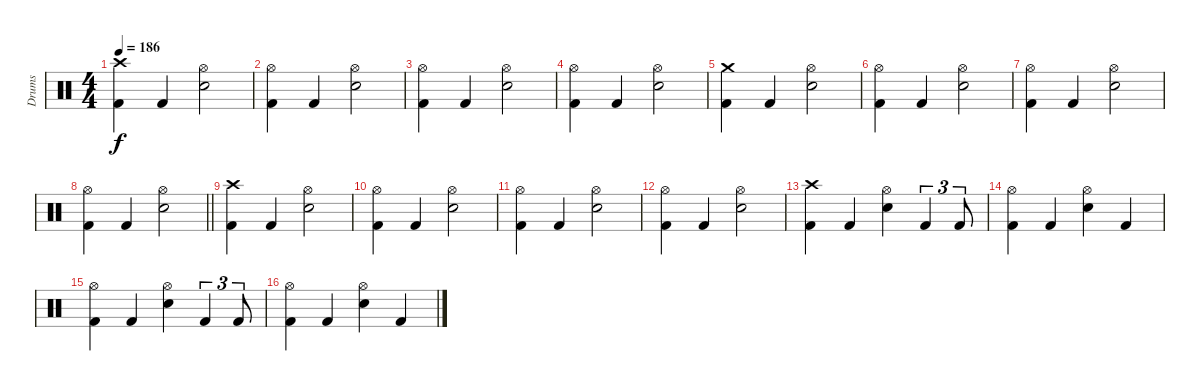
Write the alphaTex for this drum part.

\track ("Drums" "Drums") {instrument percussion}
\staff {score}
\articulation defaults
\ts (4 4)
\tempo 186
\clef neutral
\ks c
("Crash high (hit)" "Kick (hit) 2").4{dy f} "Kick (hit) 2".4 ("Hi-Hat (open)" "Electric Snare (hit)").2 |
("Hi-Hat (open)" "Kick (hit) 2").4 "Kick (hit) 2".4 ("Hi-Hat (open)" "Electric Snare (hit)").2 |
("Hi-Hat (open)" "Kick (hit) 2").4 "Kick (hit) 2".4 ("Hi-Hat (open)" "Electric Snare (hit)").2 |
("Hi-Hat (open)" "Kick (hit) 2").4 "Kick (hit) 2".4 ("Hi-Hat (open)" "Electric Snare (hit)").2 |
("Crash medium (hit)" "Kick (hit) 2").4 "Kick (hit) 2".4 ("Hi-Hat (open)" "Electric Snare (hit)").2 |
("Hi-Hat (open)" "Kick (hit) 2").4 "Kick (hit) 2".4 ("Hi-Hat (open)" "Electric Snare (hit)").2 |
("Hi-Hat (open)" "Kick (hit) 2").4 "Kick (hit) 2".4 ("Hi-Hat (open)" "Electric Snare (hit)").2 |
\barLineRight lightlight
("Hi-Hat (open)" "Kick (hit) 2").4 "Kick (hit) 2".4 ("Hi-Hat (open)" "Electric Snare (hit)").2 |
\section ("" "")
("Crash high (hit)" "Kick (hit) 2").4 "Kick (hit) 2".4 ("Hi-Hat (open)" "Electric Snare (hit)").2 |
("Hi-Hat (open)" "Kick (hit) 2").4 "Kick (hit) 2".4 ("Hi-Hat (open)" "Electric Snare (hit)").2 |
("Hi-Hat (open)" "Kick (hit) 2").4 "Kick (hit) 2".4 ("Hi-Hat (open)" "Electric Snare (hit)").2 |
("Hi-Hat (open)" "Kick (hit) 2").4 "Kick (hit) 2".4 ("Hi-Hat (open)" "Electric Snare (hit)").2 |
("Crash high (hit)" "Kick (hit) 2").4 "Kick (hit) 2".4 ("Hi-Hat (open)" "Electric Snare (hit)").4 "Kick (hit) 2".4{tu (3 2)} "Kick (hit) 2".8{tu (3 2)} |
("Hi-Hat (open)" "Kick (hit) 2").4 "Kick (hit) 2".4 ("Hi-Hat (open)" "Electric Snare (hit)").4 "Kick (hit) 2".4 |
("Hi-Hat (open)" "Kick (hit) 2").4 "Kick (hit) 2".4 ("Hi-Hat (open)" "Electric Snare (hit)").4 "Kick (hit) 2".4{tu (3 2)} "Kick (hit) 2".8{tu (3 2)} |
("Hi-Hat (open)" "Kick (hit) 2").4 "Kick (hit) 2".4 ("Hi-Hat (open)" "Electric Snare (hit)").4 "Kick (hit) 2".4
